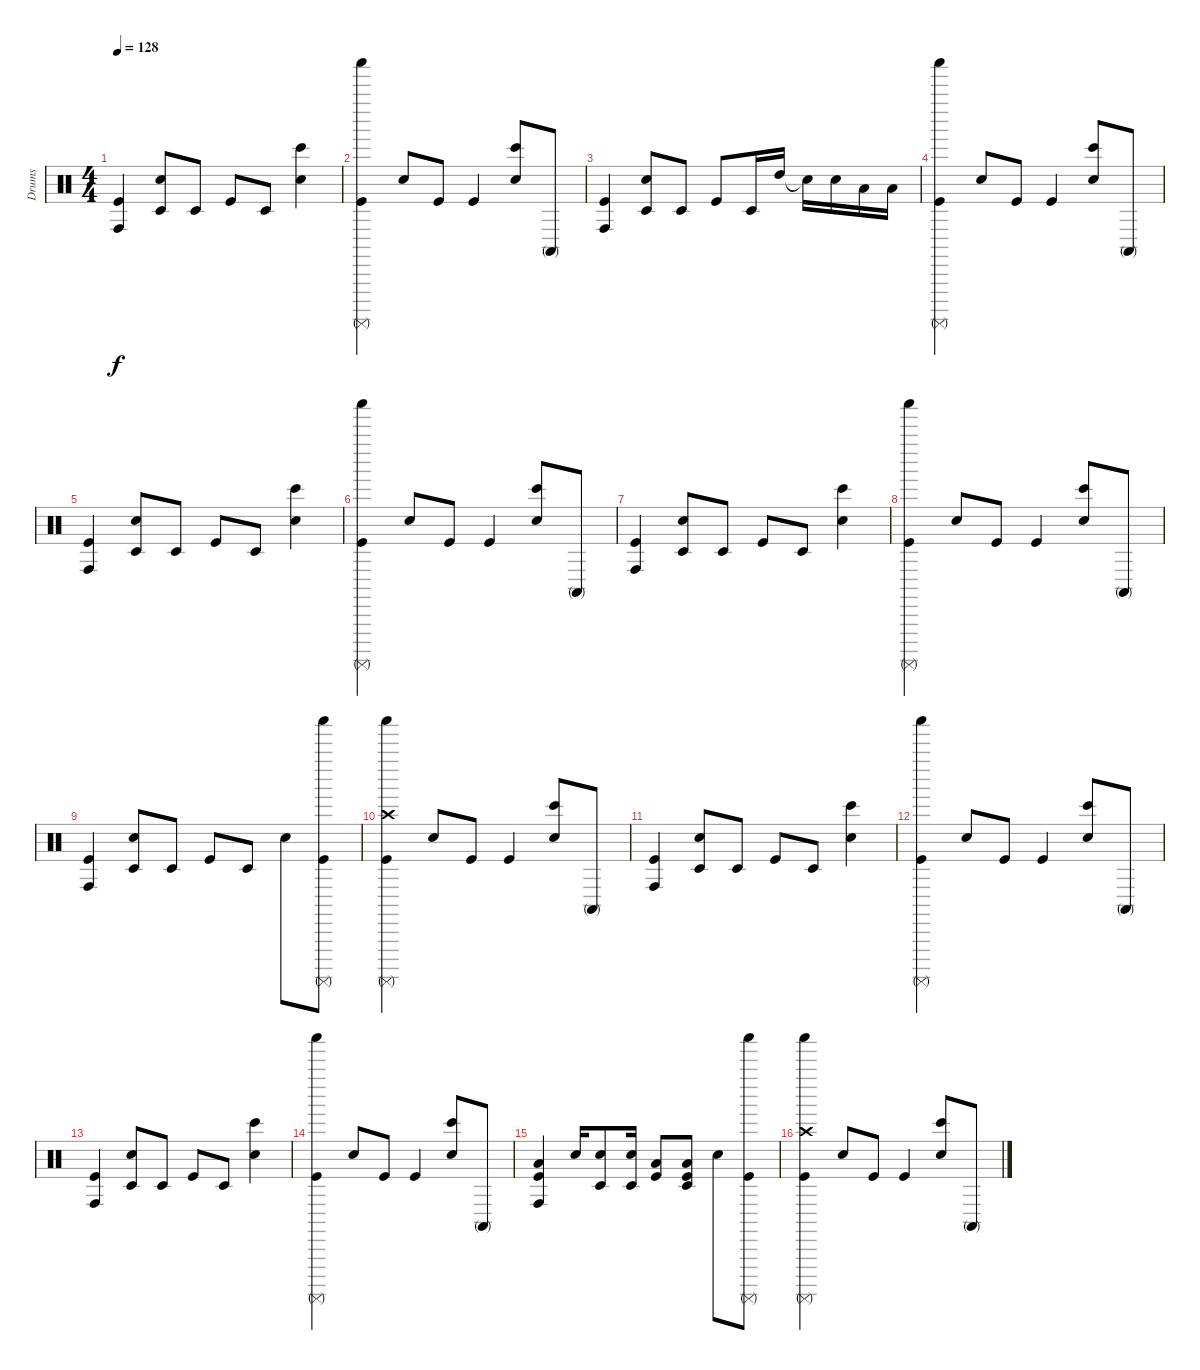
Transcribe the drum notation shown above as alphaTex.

\track ("Drums" "Drums") {instrument percussion}
\staff {score}
\articulation defaults
\ts (4 4)
\tempo 128
\clef neutral
\ks c
("Conga high (hit)" "Kick (hit)").4{dy f} ("Timbale low (hit)" "Electric Snare (hit)").8 "Timbale low (hit)".8 "Kick (hit)".8 "Timbale low (hit)".8 ("Bongo High (hit)" "Electric Snare (hit)").4 |
("Surdo (mute)" "Shaker (hit)" "Kick (hit)").4 "Electric Snare (hit)".8 "Kick (hit)".8 "Kick (hit)".4 ("Bongo High (hit)" "Electric Snare (hit)").8 "Conga high (mute)".8 |
("Conga high (hit)" "Kick (hit)").4 ("Timbale low (hit)" "Electric Snare (hit)").8 "Timbale low (hit)".8 "Kick (hit)".8 "Timbale low (hit)".16 "High Tom (hit)".16 "Snare (hit)"{t}.16 "Electric Snare (hit)".16 "Low Tom (hit)".16 "Low Floor Tom (hit)".16 |
("Surdo (mute)" "Shaker (hit)" "Kick (hit)").4 "Electric Snare (hit)".8 "Kick (hit)".8 "Kick (hit)".4 ("Bongo High (hit)" "Electric Snare (hit)").8 "Conga high (mute)".8 |
("Conga high (hit)" "Kick (hit)").4 ("Timbale low (hit)" "Electric Snare (hit)").8 "Timbale low (hit)".8 "Kick (hit)".8 "Timbale low (hit)".8 ("Bongo High (hit)" "Electric Snare (hit)").4 |
("Surdo (mute)" "Shaker (hit)" "Kick (hit)").4 "Electric Snare (hit)".8 "Kick (hit)".8 "Kick (hit)".4 ("Bongo High (hit)" "Electric Snare (hit)").8 "Conga high (mute)".8 |
("Conga high (hit)" "Kick (hit)").4 ("Timbale low (hit)" "Electric Snare (hit)").8 "Timbale low (hit)".8 "Kick (hit)".8 "Timbale low (hit)".8 ("Bongo High (hit)" "Electric Snare (hit)").4 |
("Surdo (mute)" "Shaker (hit)" "Kick (hit)").4 "Electric Snare (hit)".8 "Kick (hit)".8 "Kick (hit)".4 ("Bongo High (hit)" "Electric Snare (hit)").8 "Conga high (mute)".8 |
("Conga high (hit)" "Kick (hit)").4 ("Timbale low (hit)" "Electric Snare (hit)").8 "Timbale low (hit)".8 "Kick (hit)".8 "Timbale low (hit)".8 "Electric Snare (hit)".8 ("Surdo (mute)" "Shaker (hit)" "Kick (hit)").8 |
("Crash high (hit)" "Surdo (mute)" "Shaker (hit)" "Kick (hit)").4 "Electric Snare (hit)".8 "Kick (hit)".8 "Kick (hit)".4 ("Bongo High (hit)" "Electric Snare (hit)").8 "Conga high (mute)".8 |
("Conga high (hit)" "Kick (hit)").4 ("Timbale low (hit)" "Electric Snare (hit)").8 "Timbale low (hit)".8 "Kick (hit)".8 "Timbale low (hit)".8 ("Bongo High (hit)" "Electric Snare (hit)").4 |
("Surdo (mute)" "Shaker (hit)" "Kick (hit)").4 "Electric Snare (hit)".8 "Kick (hit)".8 "Kick (hit)".4 ("Bongo High (hit)" "Electric Snare (hit)").8 "Conga high (mute)".8 |
("Conga high (hit)" "Kick (hit)").4 ("Timbale low (hit)" "Electric Snare (hit)").8 "Timbale low (hit)".8 "Kick (hit)".8 "Timbale low (hit)".8 ("Bongo High (hit)" "Electric Snare (hit)").4 |
("Surdo (mute)" "Shaker (hit)" "Kick (hit)").4 "Electric Snare (hit)".8 "Kick (hit)".8 "Kick (hit)".4 ("Bongo High (hit)" "Electric Snare (hit)").8 "Conga high (mute)".8 |
("Conga high (hit)" "Low Tom (hit)" "Kick (hit)").4 "Electric Snare (hit)".16 ("Timbale low (hit)" "Electric Snare (hit)").8 ("Timbale low (hit)" "Electric Snare (hit)").16 ("Low Floor Tom (hit)" "Kick (hit)").8 ("Timbale low (hit)" "Low Floor Tom (hit)" "Kick (hit)").8 "Electric Snare (hit)".8 ("Surdo (mute)" "Shaker (hit)" "Kick (hit)").8 |
("Crash high (hit)" "Surdo (mute)" "Shaker (hit)" "Kick (hit)").4 "Electric Snare (hit)".8 "Kick (hit)".8 "Kick (hit)".4 ("Bongo High (hit)" "Electric Snare (hit)").8 "Conga high (mute)".8
